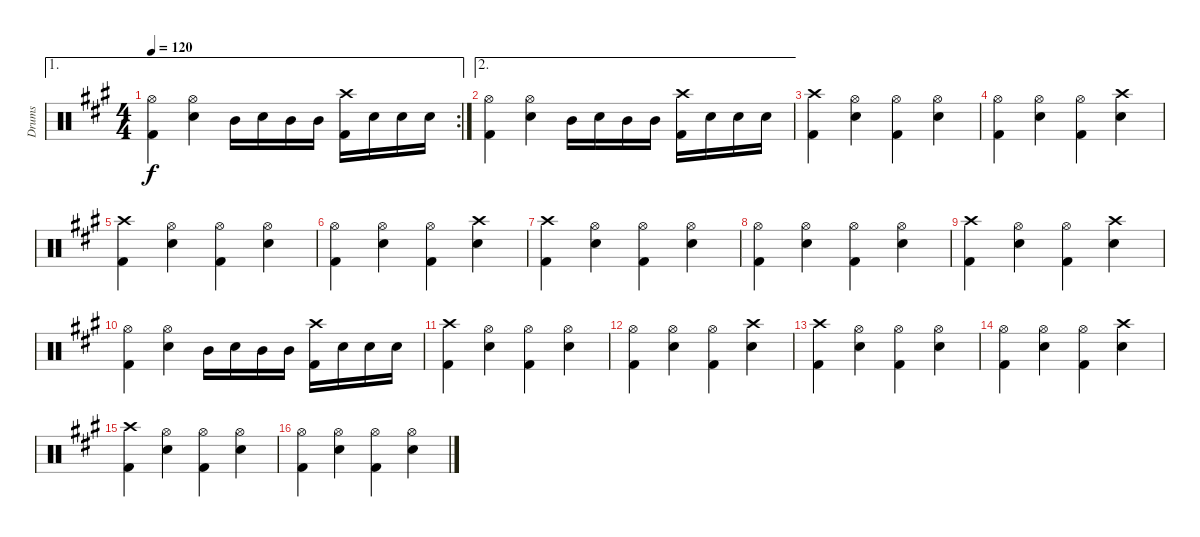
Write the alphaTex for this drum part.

\track ("Drums" "Drums") {instrument percussion}
\staff {score}
\articulation defaults
\ae 1
\rc 2
\ts (4 4)
\tempo 120
\clef neutral
\ks a
("Hi-Hat (open)" "Kick (hit) 2").4{dy f} ("Hi-Hat (open)" "Snare (hit) 2").4 "Mid Tom (hit)".16 "Snare (hit) 2".16 "Mid Tom (hit)".16 "Mid Tom (hit)".16 ("Crash high (hit)" "Kick (hit) 2").16 "Snare (hit) 2".16 "Snare (hit) 2".16 "Snare (hit) 2".16 |
\ae 2
("Hi-Hat (open)" "Kick (hit) 2").4 ("Hi-Hat (open)" "Snare (hit) 2").4 "Mid Tom (hit)".16 "Snare (hit) 2".16 "Mid Tom (hit)".16 "Mid Tom (hit)".16 ("Crash high (hit)" "Kick (hit) 2").16 "Snare (hit) 2".16 "Snare (hit) 2".16 "Snare (hit) 2".16 |
("Crash high (hit)" "Kick (hit) 2").4 ("Hi-Hat (open)" "Snare (hit) 2").4 ("Hi-Hat (open)" "Kick (hit) 2").4 ("Hi-Hat (open)" "Snare (hit) 2").4 |
("Hi-Hat (open)" "Kick (hit) 2").4 ("Hi-Hat (open)" "Snare (hit) 2").4 ("Hi-Hat (open)" "Kick (hit) 2").4 ("Crash high (hit)" "Snare (hit) 2").4 |
("Crash high (hit)" "Kick (hit) 2").4 ("Hi-Hat (open)" "Snare (hit) 2").4 ("Hi-Hat (open)" "Kick (hit) 2").4 ("Hi-Hat (open)" "Snare (hit) 2").4 |
("Hi-Hat (open)" "Kick (hit) 2").4 ("Hi-Hat (open)" "Snare (hit) 2").4 ("Hi-Hat (open)" "Kick (hit) 2").4 ("Crash high (hit)" "Snare (hit) 2").4 |
("Crash high (hit)" "Kick (hit) 2").4 ("Hi-Hat (open)" "Snare (hit) 2").4 ("Hi-Hat (open)" "Kick (hit) 2").4 ("Hi-Hat (open)" "Snare (hit) 2").4 |
("Hi-Hat (open)" "Kick (hit) 2").4 ("Hi-Hat (open)" "Snare (hit) 2").4 ("Hi-Hat (open)" "Kick (hit) 2").4 ("Hi-Hat (open)" "Snare (hit) 2").4 |
("Crash high (hit)" "Kick (hit) 2").4 ("Hi-Hat (open)" "Snare (hit) 2").4 ("Hi-Hat (open)" "Kick (hit) 2").4 ("Crash high (hit)" "Snare (hit) 2").4 |
("Hi-Hat (open)" "Kick (hit) 2").4 ("Hi-Hat (open)" "Snare (hit) 2").4 "Mid Tom (hit)".16 "Snare (hit) 2".16 "Mid Tom (hit)".16 "Mid Tom (hit)".16 ("Crash high (hit)" "Kick (hit) 2").16 "Snare (hit) 2".16 "Snare (hit) 2".16 "Snare (hit) 2".16 |
("Crash high (hit)" "Kick (hit) 2").4 ("Hi-Hat (open)" "Snare (hit) 2").4 ("Hi-Hat (open)" "Kick (hit) 2").4 ("Hi-Hat (open)" "Snare (hit) 2").4 |
("Hi-Hat (open)" "Kick (hit) 2").4 ("Hi-Hat (open)" "Snare (hit) 2").4 ("Hi-Hat (open)" "Kick (hit) 2").4 ("Crash high (hit)" "Snare (hit) 2").4 |
("Crash high (hit)" "Kick (hit) 2").4 ("Hi-Hat (open)" "Snare (hit) 2").4 ("Hi-Hat (open)" "Kick (hit) 2").4 ("Hi-Hat (open)" "Snare (hit) 2").4 |
("Hi-Hat (open)" "Kick (hit) 2").4 ("Hi-Hat (open)" "Snare (hit) 2").4 ("Hi-Hat (open)" "Kick (hit) 2").4 ("Crash high (hit)" "Snare (hit) 2").4 |
("Crash high (hit)" "Kick (hit) 2").4 ("Hi-Hat (open)" "Snare (hit) 2").4 ("Hi-Hat (open)" "Kick (hit) 2").4 ("Hi-Hat (open)" "Snare (hit) 2").4 |
("Hi-Hat (open)" "Kick (hit) 2").4 ("Hi-Hat (open)" "Snare (hit) 2").4 ("Hi-Hat (open)" "Kick (hit) 2").4 ("Hi-Hat (open)" "Snare (hit) 2").4
